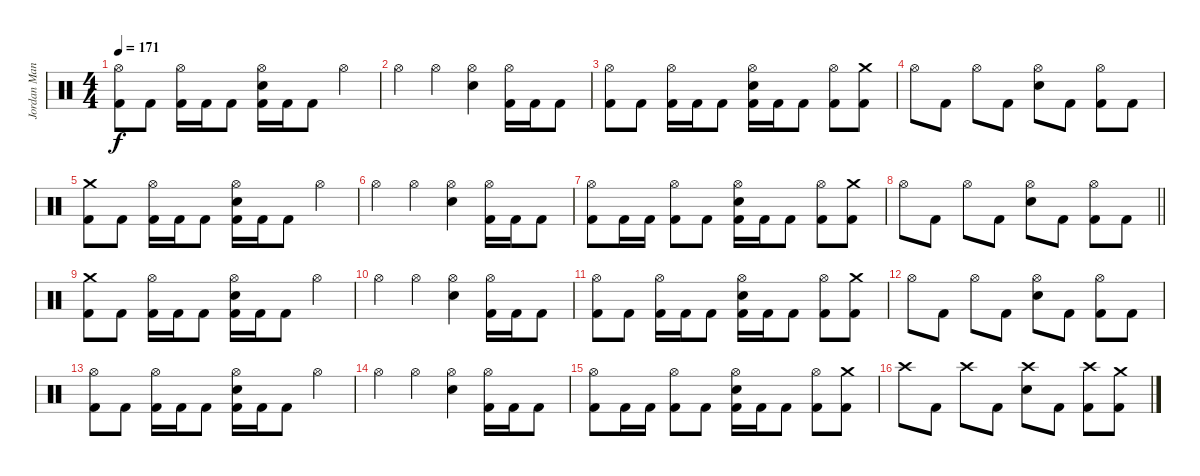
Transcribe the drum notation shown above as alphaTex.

\track ("Jordan Mancino" "Jordan Man") {instrument percussion}
\staff {score}
\articulation defaults
\ts (4 4)
\section ("" "")
\tempo 171
\clef neutral
\ks c
("Hi-Hat (open)" "Kick (hit) 2").8{dy f} "Kick (hit) 2".8 ("Hi-Hat (open)" "Kick (hit) 2").16 "Kick (hit) 2".16 "Kick (hit) 2".8 ("Hi-Hat (open)" "Electric Snare (hit)" "Kick (hit) 2").16 "Kick (hit) 2".16 "Kick (hit) 2".8 "Hi-Hat (open)".4 |
"Hi-Hat (open)".4 "Hi-Hat (open)".4 ("Hi-Hat (open)" "Electric Snare (hit)").4 ("Hi-Hat (open)" "Kick (hit) 2").16 "Kick (hit) 2".16 "Kick (hit) 2".8 |
("Hi-Hat (open)" "Kick (hit) 2").8 "Kick (hit) 2".8 ("Hi-Hat (open)" "Kick (hit) 2").16 "Kick (hit) 2".16 "Kick (hit) 2".8 ("Hi-Hat (open)" "Electric Snare (hit)" "Kick (hit) 2").16 "Kick (hit) 2".16 "Kick (hit) 2".8 ("Hi-Hat (open)" "Kick (hit) 2").8 ("Crash medium (hit)" "Kick (hit) 2").8 |
"Hi-Hat (open)".8 "Kick (hit) 2".8 "Hi-Hat (open)".8 "Kick (hit) 2".8 ("Hi-Hat (open)" "Electric Snare (hit)").8 "Kick (hit) 2".8 ("Hi-Hat (open)" "Kick (hit) 2").8 "Kick (hit) 2".8 |
("Crash medium (hit)" "Kick (hit) 2").8 "Kick (hit) 2".8 ("Hi-Hat (open)" "Kick (hit) 2").16 "Kick (hit) 2".16 "Kick (hit) 2".8 ("Hi-Hat (open)" "Electric Snare (hit)" "Kick (hit) 2").16 "Kick (hit) 2".16 "Kick (hit) 2".8 "Hi-Hat (open)".4 |
"Hi-Hat (open)".4 "Hi-Hat (open)".4 ("Hi-Hat (open)" "Electric Snare (hit)").4 ("Hi-Hat (open)" "Kick (hit) 2").16 "Kick (hit) 2".16 "Kick (hit) 2".8 |
("Hi-Hat (open)" "Kick (hit) 2").8 "Kick (hit) 2".16 "Kick (hit) 2".16 ("Hi-Hat (open)" "Kick (hit) 2").8 "Kick (hit) 2".8 ("Hi-Hat (open)" "Electric Snare (hit)" "Kick (hit) 2").16 "Kick (hit) 2".16 "Kick (hit) 2".8 ("Hi-Hat (open)" "Kick (hit) 2").8 ("Crash medium (hit)" "Kick (hit) 2").8 |
\barLineRight lightlight "Hi-Hat (open)".8 "Kick (hit) 2".8 "Hi-Hat (open)".8 "Kick (hit) 2".8
("Hi-Hat (open)" "Electric Snare (hit)").8 "Kick (hit) 2".8 ("Hi-Hat (open)" "Kick (hit) 2").8 "Kick (hit) 2".8 |
\section ("" "")
("Crash medium (hit)" "Kick (hit) 2").8 "Kick (hit) 2".8 ("Hi-Hat (open)" "Kick (hit) 2").16 "Kick (hit) 2".16 "Kick (hit) 2".8 ("Hi-Hat (open)" "Electric Snare (hit)" "Kick (hit) 2").16 "Kick (hit) 2".16 "Kick (hit) 2".8 "Hi-Hat (open)".4 |
"Hi-Hat (open)".4 "Hi-Hat (open)".4 ("Hi-Hat (open)" "Electric Snare (hit)").4 ("Hi-Hat (open)" "Kick (hit) 2").16 "Kick (hit) 2".16 "Kick (hit) 2".8 |
("Hi-Hat (open)" "Kick (hit) 2").8 "Kick (hit) 2".8 ("Hi-Hat (open)" "Kick (hit) 2").16 "Kick (hit) 2".16 "Kick (hit) 2".8 ("Hi-Hat (open)" "Electric Snare (hit)" "Kick (hit) 2").16 "Kick (hit) 2".16 "Kick (hit) 2".8 ("Hi-Hat (open)" "Kick (hit) 2").8 ("Crash medium (hit)" "Kick (hit) 2").8 |
"Hi-Hat (open)".8 "Kick (hit) 2".8 "Hi-Hat (open)".8 "Kick (hit) 2".8 ("Hi-Hat (open)" "Electric Snare (hit)").8 "Kick (hit) 2".8 ("Hi-Hat (open)" "Kick (hit) 2").8 "Kick (hit) 2".8 |
("Hi-Hat (open)" "Kick (hit) 2").8 "Kick (hit) 2".8 ("Hi-Hat (open)" "Kick (hit) 2").16 "Kick (hit) 2".16 "Kick (hit) 2".8 ("Hi-Hat (open)" "Electric Snare (hit)" "Kick (hit) 2").16 "Kick (hit) 2".16 "Kick (hit) 2".8 "Hi-Hat (open)".4 |
"Hi-Hat (open)".4 "Hi-Hat (open)".4 ("Hi-Hat (open)" "Electric Snare (hit)").4 ("Hi-Hat (open)" "Kick (hit) 2").16 "Kick (hit) 2".16 "Kick (hit) 2".8 |
("Hi-Hat (open)" "Kick (hit) 2").8 "Kick (hit) 2".16 "Kick (hit) 2".16 ("Hi-Hat (open)" "Kick (hit) 2").8 "Kick (hit) 2".8 ("Hi-Hat (open)" "Electric Snare (hit)" "Kick (hit) 2").16 "Kick (hit) 2".16 "Kick (hit) 2".8 ("Hi-Hat (open)" "Kick (hit) 2").8 ("Crash medium (hit)" "Kick (hit) 2").8 |
"Crash high (hit)".8 "Kick (hit) 2".8 "Crash high (hit)".8 "Kick (hit) 2".8 ("Crash high (hit)" "Electric Snare (hit)").8 "Kick (hit) 2".8 ("Crash high (hit)" "Kick (hit) 2").8 ("Crash medium (hit)" "Kick (hit) 2").8
